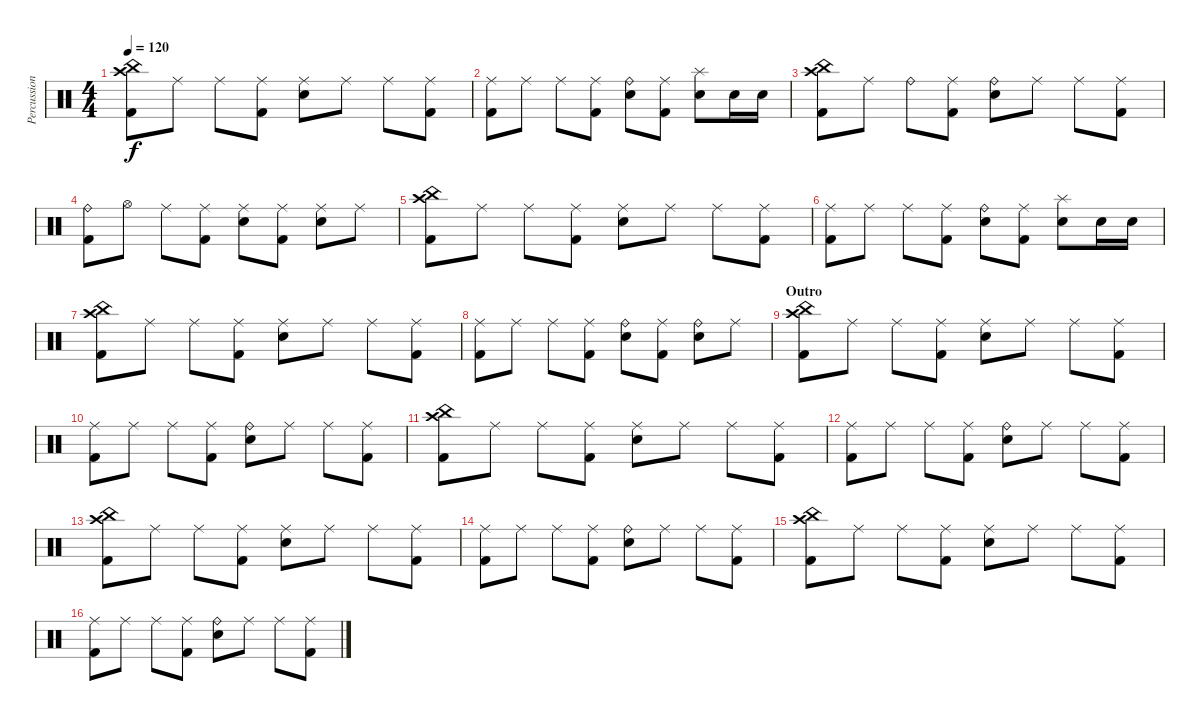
\track ("Percussion" "Percussion") {instrument percussion}
\staff {score}
\articulation defaults
\ts (4 4)
\tempo 120
\clef neutral
\ks c
("China (hit)" "Crash high (hit)" "Kick (hit) 2").8{dy f} "Ride (middle)".8 "Ride (middle)".8 ("Ride (middle)" "Kick (hit) 2").8 ("Ride (middle)" "Electric Snare (hit)").8 "Ride (middle)".8 "Ride (middle)".8 ("Ride (middle)" "Kick (hit) 2").8 |
("Ride (middle)" "Kick (hit) 2").8 "Ride (middle)".8 "Ride (middle)".8 ("Ride (middle)" "Kick (hit) 2").8 ("Ride (bell)" "Electric Snare (hit)").8 ("Ride (middle)" "Kick (hit) 2").8 ("Splash (hit)" "Electric Snare (hit)").8 "Electric Snare (hit)".16 "Electric Snare (hit)".16 |
("China (hit)" "Crash high (hit)" "Kick (hit) 2").8 "Ride (middle)".8 "Ride (bell)".8 ("Ride (middle)" "Kick (hit) 2").8 ("Ride (bell)" "Electric Snare (hit)").8 "Ride (middle)".8 "Ride (middle)".8 ("Ride (middle)" "Kick (hit) 2").8 |
("Ride (bell)" "Kick (hit) 2").8 "Hi-Hat (open)".8 "Ride (middle)".8 ("Ride (middle)" "Kick (hit) 2").8 ("Ride (middle)" "Electric Snare (hit)").8 ("Ride (middle)" "Kick (hit) 2").8 ("Ride (middle)" "Electric Snare (hit)").8 "Ride (middle)".8 |
("China (hit)" "Crash high (hit)" "Kick (hit) 2").8 "Ride (middle)".8 "Ride (middle)".8 ("Ride (middle)" "Kick (hit) 2").8 ("Ride (middle)" "Electric Snare (hit)").8 "Ride (middle)".8 "Ride (middle)".8 ("Ride (middle)" "Kick (hit) 2").8 |
("Ride (middle)" "Kick (hit) 2").8 "Ride (middle)".8 "Ride (middle)".8 ("Ride (middle)" "Kick (hit) 2").8 ("Ride (bell)" "Electric Snare (hit)").8 ("Ride (middle)" "Kick (hit) 2").8 ("Splash (hit)" "Electric Snare (hit)").8 "Electric Snare (hit)".16 "Electric Snare (hit)".16 |
("China (hit)" "Crash high (hit)" "Kick (hit) 2").8 "Ride (middle)".8 "Ride (middle)".8 ("Ride (middle)" "Kick (hit) 2").8 ("Ride (middle)" "Electric Snare (hit)").8 "Ride (middle)".8 "Ride (middle)".8 ("Ride (middle)" "Kick (hit) 2").8 |
("Ride (middle)" "Kick (hit) 2").8 "Ride (middle)".8 "Ride (middle)".8 ("Ride (middle)" "Kick (hit) 2").8 ("Ride (bell)" "Electric Snare (hit)").8 ("Ride (middle)" "Kick (hit) 2").8 ("Ride (bell)" "Electric Snare (hit)").8 "Ride (middle)".8 |
\section ("" "Outro")
("China (hit)" "Crash high (hit)" "Kick (hit) 2").8 "Ride (middle)".8 "Ride (middle)".8 ("Ride (middle)" "Kick (hit) 2").8 ("Ride (middle)" "Electric Snare (hit)").8 "Ride (middle)".8 "Ride (middle)".8 ("Ride (middle)" "Kick (hit) 2").8 |
("Ride (middle)" "Kick (hit) 2").8 "Ride (middle)".8 "Ride (middle)".8 ("Ride (middle)" "Kick (hit) 2").8 ("Ride (bell)" "Electric Snare (hit)").8 "Ride (middle)".8 "Ride (middle)".8 ("Ride (middle)" "Kick (hit) 2").8 |
("China (hit)" "Crash high (hit)" "Kick (hit) 2").8 "Ride (middle)".8 "Ride (middle)".8 ("Ride (middle)" "Kick (hit) 2").8 ("Ride (middle)" "Electric Snare (hit)").8 "Ride (middle)".8 "Ride (middle)".8 ("Ride (middle)" "Kick (hit) 2").8 |
("Ride (middle)" "Kick (hit) 2").8 "Ride (middle)".8 "Ride (middle)".8 ("Ride (middle)" "Kick (hit) 2").8 ("Ride (bell)" "Electric Snare (hit)").8 "Ride (middle)".8 "Ride (middle)".8 ("Ride (middle)" "Kick (hit) 2").8 |
("China (hit)" "Crash high (hit)" "Kick (hit) 2").8 "Ride (middle)".8 "Ride (middle)".8 ("Ride (middle)" "Kick (hit) 2").8 ("Ride (middle)" "Electric Snare (hit)").8 "Ride (middle)".8 "Ride (middle)".8 ("Ride (middle)" "Kick (hit) 2").8 |
("Ride (middle)" "Kick (hit) 2").8 "Ride (middle)".8 "Ride (middle)".8 ("Ride (middle)" "Kick (hit) 2").8 ("Ride (bell)" "Electric Snare (hit)").8 "Ride (middle)".8 "Ride (middle)".8 ("Ride (middle)" "Kick (hit) 2").8 |
("China (hit)" "Crash high (hit)" "Kick (hit) 2").8 "Ride (middle)".8 "Ride (middle)".8 ("Ride (middle)" "Kick (hit) 2").8 ("Ride (middle)" "Electric Snare (hit)").8 "Ride (middle)".8 "Ride (middle)".8 ("Ride (middle)" "Kick (hit) 2").8 |
("Ride (middle)" "Kick (hit) 2").8 "Ride (middle)".8 "Ride (middle)".8 ("Ride (middle)" "Kick (hit) 2").8 ("Ride (bell)" "Electric Snare (hit)").8 "Ride (middle)".8 "Ride (middle)".8 ("Ride (middle)" "Kick (hit) 2").8
